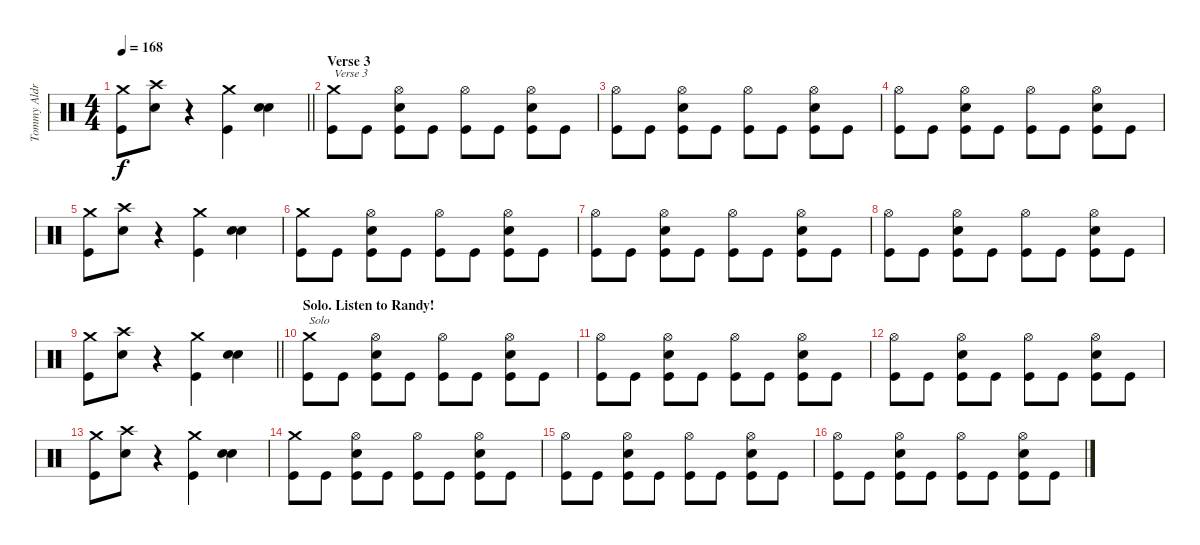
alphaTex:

\track ("Tommy Aldrige" "Tommy Aldr") {instrument percussion}
\staff {score}
\articulation defaults
\ts (4 4)
\tempo 168
\clef neutral
\barLineRight lightlight
\ks c
("Crash medium (hit)" "Kick (hit)").8{dy f} ("Crash high (hit)" "Snare (hit) 2").8 r.4 ("Crash medium (hit)" "Kick (hit)").4 ("Snare (hit) 2" "Snare (hit) 2").4{bd 240} |
\section ("" "Verse 3")
("Crash medium (hit)" "Kick (hit)").8{txt "Verse 3"} "Kick (hit)".8 ("Hi-Hat (open)" "Snare (hit) 2" "Kick (hit)").8 "Kick (hit)".8 ("Hi-Hat (open)" "Kick (hit)").8 "Kick (hit)".8 ("Hi-Hat (open)" "Snare (hit) 2" "Kick (hit)").8 "Kick (hit)".8 |
("Hi-Hat (open)" "Kick (hit)").8 "Kick (hit)".8 ("Hi-Hat (open)" "Snare (hit) 2" "Kick (hit)").8 "Kick (hit)".8 ("Hi-Hat (open)" "Kick (hit)").8 "Kick (hit)".8 ("Hi-Hat (open)" "Snare (hit) 2" "Kick (hit)").8 "Kick (hit)".8 |
("Hi-Hat (open)" "Kick (hit)").8 "Kick (hit)".8 ("Hi-Hat (open)" "Snare (hit) 2" "Kick (hit)").8 "Kick (hit)".8 ("Hi-Hat (open)" "Kick (hit)").8 "Kick (hit)".8 ("Hi-Hat (open)" "Snare (hit) 2" "Kick (hit)").8 "Kick (hit)".8 |
("Crash medium (hit)" "Kick (hit)").8 ("Crash high (hit)" "Snare (hit) 2").8 r.4 ("Crash medium (hit)" "Kick (hit)").4 ("Snare (hit) 2" "Snare (hit) 2").4{bd 240} |
("Crash medium (hit)" "Kick (hit)").8 "Kick (hit)".8 ("Hi-Hat (open)" "Snare (hit) 2" "Kick (hit)").8 "Kick (hit)".8 ("Hi-Hat (open)" "Kick (hit)").8 "Kick (hit)".8 ("Hi-Hat (open)" "Snare (hit) 2" "Kick (hit)").8 "Kick (hit)".8 |
("Hi-Hat (open)" "Kick (hit)").8 "Kick (hit)".8 ("Hi-Hat (open)" "Snare (hit) 2" "Kick (hit)").8 "Kick (hit)".8 ("Hi-Hat (open)" "Kick (hit)").8 "Kick (hit)".8 ("Hi-Hat (open)" "Snare (hit) 2" "Kick (hit)").8 "Kick (hit)".8 |
("Hi-Hat (open)" "Kick (hit)").8 "Kick (hit)".8 ("Hi-Hat (open)" "Snare (hit) 2" "Kick (hit)").8 "Kick (hit)".8 ("Hi-Hat (open)" "Kick (hit)").8 "Kick (hit)".8 ("Hi-Hat (open)" "Snare (hit) 2" "Kick (hit)").8 "Kick (hit)".8 |
\barLineRight lightlight
("Crash medium (hit)" "Kick (hit)").8 ("Crash high (hit)" "Snare (hit) 2").8 r.4 ("Crash medium (hit)" "Kick (hit)").4 ("Snare (hit) 2" "Snare (hit) 2").4{bd 240} |
\section ("" "Solo. Listen to Randy!")
("Crash medium (hit)" "Kick (hit)").8{txt "Solo"} "Kick (hit)".8 ("Hi-Hat (open)" "Snare (hit) 2" "Kick (hit)").8 "Kick (hit)".8 ("Hi-Hat (open)" "Kick (hit)").8 "Kick (hit)".8 ("Hi-Hat (open)" "Snare (hit) 2" "Kick (hit)").8 "Kick (hit)".8 |
("Hi-Hat (open)" "Kick (hit)").8 "Kick (hit)".8 ("Hi-Hat (open)" "Snare (hit) 2" "Kick (hit)").8 "Kick (hit)".8 ("Hi-Hat (open)" "Kick (hit)").8 "Kick (hit)".8 ("Hi-Hat (open)" "Snare (hit) 2" "Kick (hit)").8 "Kick (hit)".8 |
("Hi-Hat (open)" "Kick (hit)").8 "Kick (hit)".8 ("Hi-Hat (open)" "Snare (hit) 2" "Kick (hit)").8 "Kick (hit)".8 ("Hi-Hat (open)" "Kick (hit)").8 "Kick (hit)".8 ("Hi-Hat (open)" "Snare (hit) 2" "Kick (hit)").8 "Kick (hit)".8 |
("Crash medium (hit)" "Kick (hit)").8 ("Crash high (hit)" "Snare (hit) 2").8 r.4 ("Crash medium (hit)" "Kick (hit)").4 ("Snare (hit) 2" "Snare (hit) 2").4{bd 240} |
("Crash medium (hit)" "Kick (hit)").8 "Kick (hit)".8 ("Hi-Hat (open)" "Snare (hit) 2" "Kick (hit)").8 "Kick (hit)".8 ("Hi-Hat (open)" "Kick (hit)").8 "Kick (hit)".8 ("Hi-Hat (open)" "Snare (hit) 2" "Kick (hit)").8 "Kick (hit)".8 |
("Hi-Hat (open)" "Kick (hit)").8 "Kick (hit)".8 ("Hi-Hat (open)" "Snare (hit) 2" "Kick (hit)").8 "Kick (hit)".8 ("Hi-Hat (open)" "Kick (hit)").8 "Kick (hit)".8 ("Hi-Hat (open)" "Snare (hit) 2" "Kick (hit)").8 "Kick (hit)".8 |
("Hi-Hat (open)" "Kick (hit)").8 "Kick (hit)".8 ("Hi-Hat (open)" "Snare (hit) 2" "Kick (hit)").8 "Kick (hit)".8 ("Hi-Hat (open)" "Kick (hit)").8 "Kick (hit)".8 ("Hi-Hat (open)" "Snare (hit) 2" "Kick (hit)").8 "Kick (hit)".8
